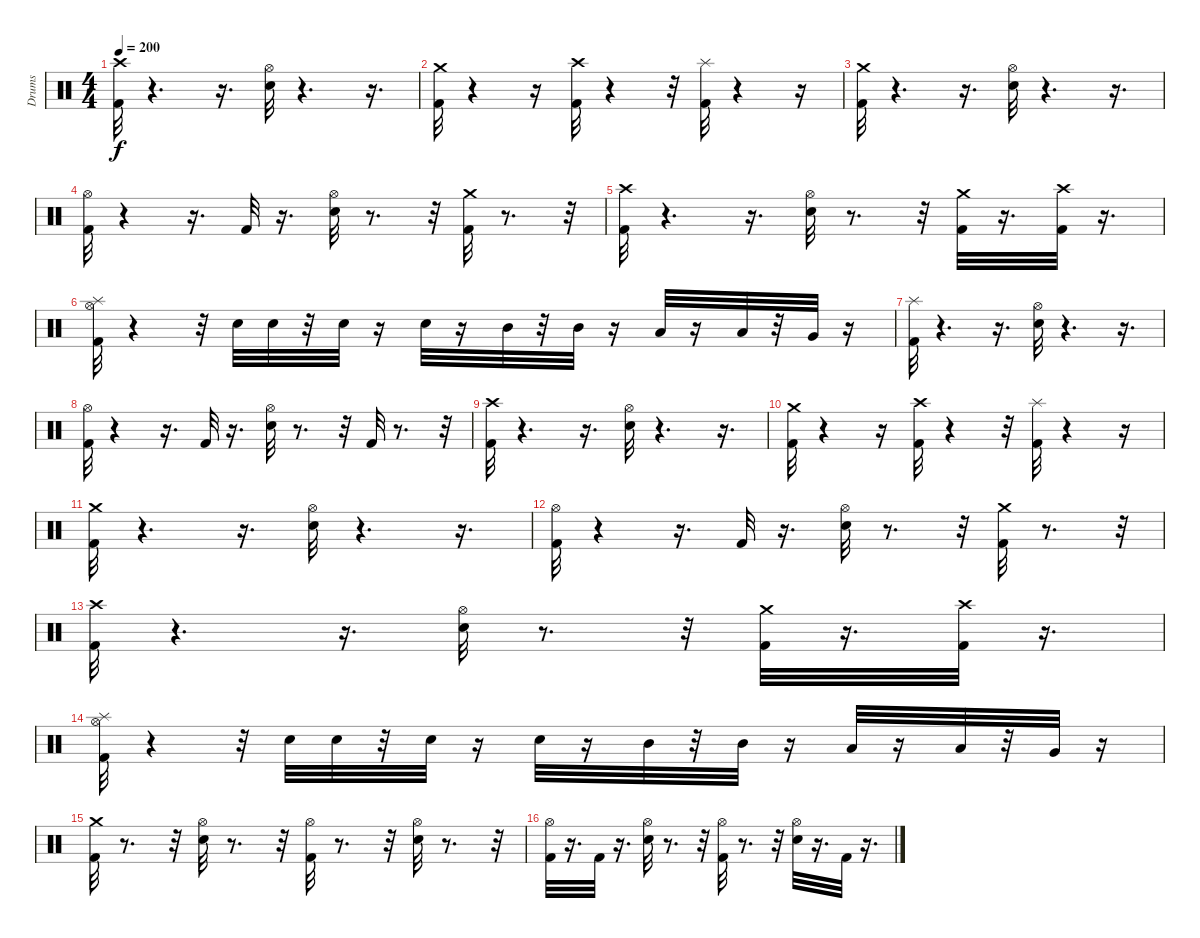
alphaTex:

\track ("Drums" "Drums") {instrument percussion}
\staff {score}
\articulation defaults
\ts (4 4)
\tempo 200
\clef neutral
\ks c
("Crash high (hit)" "Kick (hit) 2").32{dy f} r.4{d} r.16{d} ("Hi-Hat (open)" "Electric Snare (hit)").32 r.4{d} r.16{d} |
("Crash medium (hit)" "Kick (hit) 2").32 r.4 r.16 ("Kick (hit) 2" "Crash high (hit)").32 r.4 r.32 ("Kick (hit) 2" "Splash (hit)").32 r.4 r.16 |
("Crash medium (hit)" "Kick (hit) 2").32 r.4{d} r.16{d} ("Hi-Hat (open)" "Electric Snare (hit)").32 r.4{d} r.16{d} |
("Hi-Hat (open)" "Kick (hit) 2").32 r.4 r.16{d} "Kick (hit) 2".32 r.16{d} ("Electric Snare (hit)" "Hi-Hat (open)").32 r.8{d} r.32 ("Crash medium (hit)" "Kick (hit) 2").32 r.8{d} r.32 |
("Crash high (hit)" "Kick (hit) 2").32 r.4{d} r.16{d} ("Electric Snare (hit)" "Hi-Hat (open)").32 r.8{d} r.32 ("Crash medium (hit)" "Kick (hit) 2").32 r.16{d} ("Crash high (hit)" "Kick (hit) 2").32 r.16{d} |
("Splash (hit)" "Kick (hit) 2" "Hi-Hat (open)").32 r.4 r.32 "Electric Snare (hit)".32 "Electric Snare (hit)".32 r.32 "Electric Snare (hit)".32 r.16 "Electric Snare (hit)".32 r.16 "Mid Tom (hit)".32 r.32 "Mid Tom (hit)".32 r.16 "Low Tom (hit)".32 r.16 "Low Tom (hit)".32 r.32 "Very Low Tom (hit)".32 r.16 |
("Kick (hit) 2" "Splash (hit)").32 r.4{d} r.16{d} ("Hi-Hat (open)" "Electric Snare (hit)").32 r.4{d} r.16{d} |
("Hi-Hat (open)" "Kick (hit) 2").32 r.4 r.16{d} "Kick (hit) 2".32 r.16{d} ("Hi-Hat (open)" "Electric Snare (hit)").32 r.8{d} r.32 "Kick (hit) 2".32 r.8{d} r.32 |
("Crash high (hit)" "Kick (hit) 2").32 r.4{d} r.16{d} ("Hi-Hat (open)" "Electric Snare (hit)").32 r.4{d} r.16{d} |
("Crash medium (hit)" "Kick (hit) 2").32 r.4 r.16 ("Kick (hit) 2" "Crash high (hit)").32 r.4 r.32 ("Kick (hit) 2" "Splash (hit)").32 r.4 r.16 |
("Crash medium (hit)" "Kick (hit) 2").32 r.4{d} r.16{d} ("Hi-Hat (open)" "Electric Snare (hit)").32 r.4{d} r.16{d} |
("Hi-Hat (open)" "Kick (hit) 2").32 r.4 r.16{d} "Kick (hit) 2".32 r.16{d} ("Electric Snare (hit)" "Hi-Hat (open)").32 r.8{d} r.32 ("Crash medium (hit)" "Kick (hit) 2").32 r.8{d} r.32 |
("Crash high (hit)" "Kick (hit) 2").32 r.4{d} r.16{d} ("Electric Snare (hit)" "Hi-Hat (open)").32 r.8{d} r.32 ("Crash medium (hit)" "Kick (hit) 2").32 r.16{d} ("Crash high (hit)" "Kick (hit) 2").32 r.16{d} |
("Splash (hit)" "Kick (hit) 2" "Hi-Hat (open)").32 r.4 r.32 "Electric Snare (hit)".32 "Electric Snare (hit)".32 r.32 "Electric Snare (hit)".32 r.16 "Electric Snare (hit)".32 r.16 "Mid Tom (hit)".32 r.32 "Mid Tom (hit)".32 r.16 "Low Tom (hit)".32 r.16 "Low Tom (hit)".32 r.32 "Very Low Tom (hit)".32 r.16 |
("Crash medium (hit)" "Kick (hit) 2").32 r.8{d} r.32 ("Hi-Hat (open)" "Electric Snare (hit)").32 r.8{d} r.32 ("Hi-Hat (open)" "Kick (hit) 2").32 r.8{d} r.32 ("Hi-Hat (open)" "Electric Snare (hit)").32 r.8{d} r.32 |
("Kick (hit) 2" "Hi-Hat (open)").32 r.16{d} "Kick (hit) 2".32 r.16{d} ("Hi-Hat (open)" "Electric Snare (hit)").32 r.8{d} r.32 ("Hi-Hat (open)" "Kick (hit) 2").32 r.8{d} r.32 ("Hi-Hat (open)" "Electric Snare (hit)").32 r.16{d} "Kick (hit) 2".32 r.16{d}
